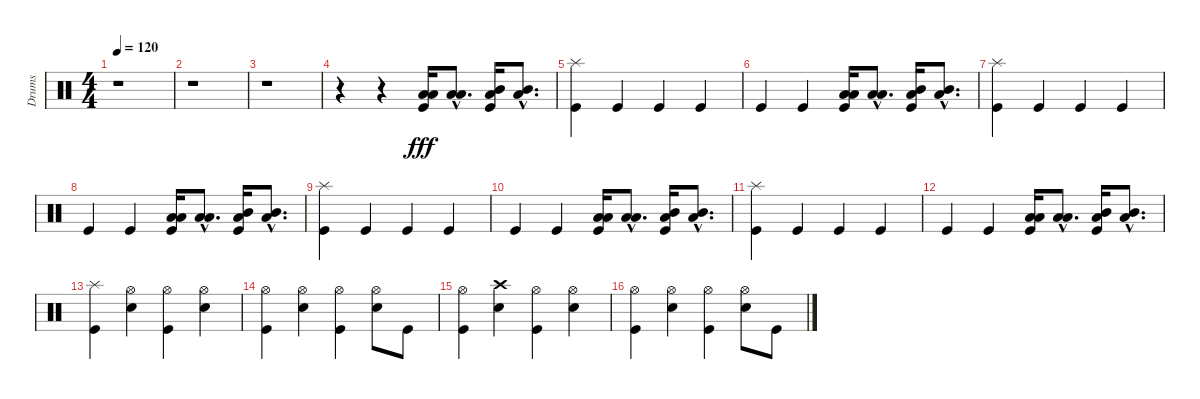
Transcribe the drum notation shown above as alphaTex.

\track ("Drums" "Drums") {instrument percussion}
\staff {score}
\articulation defaults
\ts (4 4)
\tempo 120
\clef neutral
\ks c
r.1{dy fff} |
r.1 |
r.1 |
r.4 r.4 ("Low Tom (hit)" "Low Floor Tom (hit)" "Kick (hit)").16 ("Low Tom (hit)"{hac} "Low Floor Tom (hit)"{hac}).8{d} ("Mid Tom (hit)" "Low Tom (hit)" "Kick (hit)").16 ("Mid Tom (hit)"{hac} "Low Tom (hit)"{hac}).8{d} |
("Splash (hit)" "Kick (hit)").4 "Kick (hit)".4 "Kick (hit)".4 "Kick (hit)".4 |
"Kick (hit)".4 "Kick (hit)".4 ("Low Tom (hit)" "Low Floor Tom (hit)" "Kick (hit)").16 ("Low Tom (hit)"{hac} "Low Floor Tom (hit)"{hac}).8{d} ("Mid Tom (hit)" "Low Tom (hit)" "Kick (hit)").16 ("Mid Tom (hit)"{hac} "Low Tom (hit)"{hac}).8{d} |
("Splash (hit)" "Kick (hit)").4 "Kick (hit)".4 "Kick (hit)".4 "Kick (hit)".4 |
"Kick (hit)".4 "Kick (hit)".4 ("Low Tom (hit)" "Low Floor Tom (hit)" "Kick (hit)").16 ("Low Tom (hit)"{hac} "Low Floor Tom (hit)"{hac}).8{d} ("Mid Tom (hit)" "Low Tom (hit)" "Kick (hit)").16 ("Mid Tom (hit)"{hac} "Low Tom (hit)"{hac}).8{d} |
("Splash (hit)" "Kick (hit)").4 "Kick (hit)".4 "Kick (hit)".4 "Kick (hit)".4 |
"Kick (hit)".4 "Kick (hit)".4 ("Low Tom (hit)" "Low Floor Tom (hit)" "Kick (hit)").16 ("Low Tom (hit)"{hac} "Low Floor Tom (hit)"{hac}).8{d} ("Mid Tom (hit)" "Low Tom (hit)" "Kick (hit)").16 ("Mid Tom (hit)"{hac} "Low Tom (hit)"{hac}).8{d} |
("Splash (hit)" "Kick (hit)").4 "Kick (hit)".4 "Kick (hit)".4 "Kick (hit)".4 |
"Kick (hit)".4 "Kick (hit)".4 ("Low Tom (hit)" "Low Floor Tom (hit)" "Kick (hit)").16 ("Low Tom (hit)"{hac} "Low Floor Tom (hit)"{hac}).8{d} ("Mid Tom (hit)" "Low Tom (hit)" "Kick (hit)").16 ("Mid Tom (hit)"{hac} "Low Tom (hit)"{hac}).8{d} |
("Splash (hit)" "Kick (hit)").4 ("Hi-Hat (open)" "Snare (hit) 2").4 ("Hi-Hat (open)" "Kick (hit)").4 ("Hi-Hat (open)" "Snare (hit) 2").4 |
("Hi-Hat (open)" "Kick (hit)").4 ("Hi-Hat (open)" "Snare (hit) 2").4 ("Hi-Hat (open)" "Kick (hit)").4 ("Hi-Hat (open)" "Snare (hit) 2").8 "Kick (hit)".8 |
("Hi-Hat (open)" "Kick (hit)").4 ("Crash high (hit)" "Snare (hit) 2").4 ("Hi-Hat (open)" "Kick (hit)").4 ("Hi-Hat (open)" "Snare (hit) 2").4 |
("Hi-Hat (open)" "Kick (hit)").4 ("Hi-Hat (open)" "Snare (hit) 2").4 ("Hi-Hat (open)" "Kick (hit)").4 ("Hi-Hat (open)" "Snare (hit) 2").8 "Kick (hit)".8
